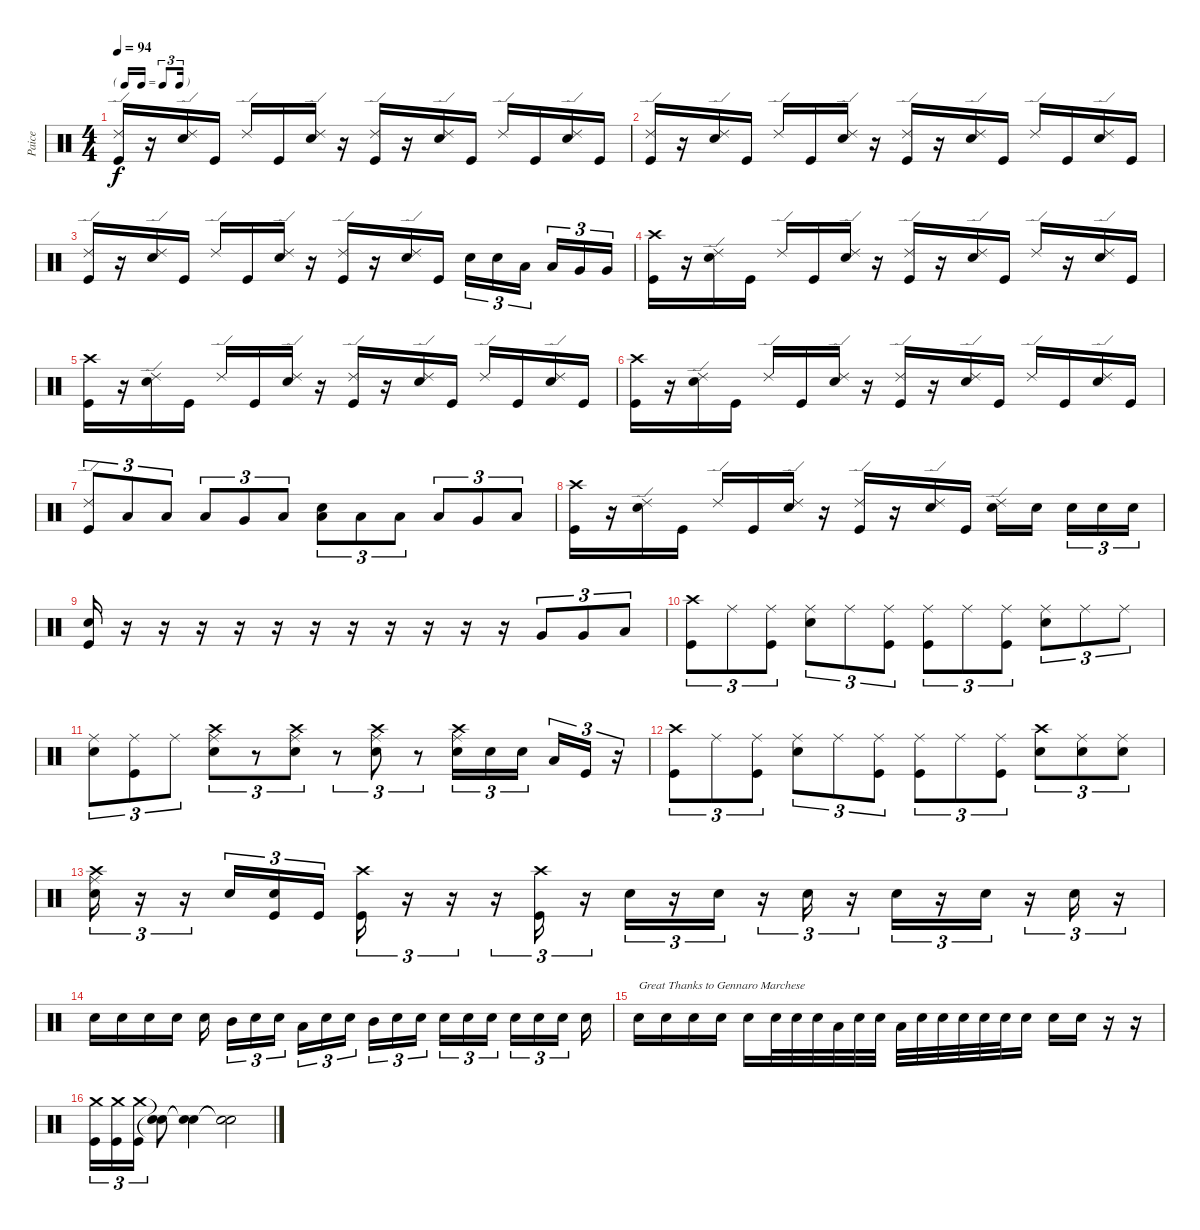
\track ("Paice" "Paice") {instrument percussion}
\staff {score}
\articulation defaults
\ts (4 4)
\tf triplet16th
\tempo 94
\clef neutral
\ks c
("Ride (edge) 2" "Kick (hit)").16{dy f} r.16 ("Ride (edge) 2" "Snare (hit) 2").16 "Kick (hit)".16 "Ride (edge) 2".16 "Kick (hit)".16 ("Ride (edge) 2" "Snare (hit) 2").16 r.16 ("Ride (edge) 2" "Kick (hit)").16 r.16 ("Ride (edge) 2" "Snare (hit) 2").16 "Kick (hit)".16 "Ride (edge) 2".16 "Kick (hit)".16 ("Ride (edge) 2" "Snare (hit) 2").16 "Kick (hit)".16 |
("Ride (edge) 2" "Kick (hit)").16 r.16 ("Ride (edge) 2" "Snare (hit) 2").16 "Kick (hit)".16 "Ride (edge) 2".16 "Kick (hit)".16 ("Ride (edge) 2" "Snare (hit) 2").16 r.16 ("Ride (edge) 2" "Kick (hit)").16 r.16 ("Ride (edge) 2" "Snare (hit) 2").16 "Kick (hit)".16 "Ride (edge) 2".16 "Kick (hit)".16 ("Ride (edge) 2" "Snare (hit) 2").16 "Kick (hit)".16 |
("Ride (edge) 2" "Kick (hit)").16 r.16 ("Ride (edge) 2" "Snare (hit) 2").16 "Kick (hit)".16 "Ride (edge) 2".16 "Kick (hit)".16 ("Ride (edge) 2" "Snare (hit) 2").16 r.16 ("Ride (edge) 2" "Kick (hit)").16 r.16 ("Ride (edge) 2" "Snare (hit) 2").16 "Kick (hit)".16 "Snare (hit) 2".16{tu (3 2)} "Snare (hit) 2".16{tu (3 2)} "Low Tom (hit)".16{tu (3 2) beam splitsecondary} "Low Tom (hit)".16{tu (3 2)} "Very Low Tom (hit)".16{tu (3 2)} "Very Low Tom (hit)".16{tu (3 2)} |
("Crash high (hit)" "Kick (hit)").16 r.16 ("Ride (edge) 2" "Snare (hit) 2").16 "Kick (hit)".16 "Ride (edge) 2".16 "Kick (hit)".16 ("Ride (edge) 2" "Snare (hit) 2").16 r.16 ("Ride (edge) 2" "Kick (hit)").16 r.16 ("Ride (edge) 2" "Snare (hit) 2").16 "Kick (hit)".16 "Ride (edge) 2".16 r.16 ("Ride (edge) 2" "Snare (hit) 2").16 "Kick (hit)".16 |
("Crash high (hit)" "Kick (hit)").16 r.16 ("Ride (edge) 2" "Snare (hit) 2").16 "Kick (hit)".16 "Ride (edge) 2".16 "Kick (hit)".16 ("Ride (edge) 2" "Snare (hit) 2").16 r.16 ("Ride (edge) 2" "Kick (hit)").16 r.16 ("Ride (edge) 2" "Snare (hit) 2").16 "Kick (hit)".16 "Ride (edge) 2".16 "Kick (hit)".16 ("Ride (edge) 2" "Snare (hit) 2").16 "Kick (hit)".16 |
("Crash high (hit)" "Kick (hit)").16 r.16 ("Ride (edge) 2" "Snare (hit) 2").16 "Kick (hit)".16 "Ride (edge) 2".16 "Kick (hit)".16 ("Ride (edge) 2" "Snare (hit) 2").16 r.16 ("Ride (edge) 2" "Kick (hit)").16 r.16 ("Ride (edge) 2" "Snare (hit) 2").16 "Kick (hit)".16 "Ride (edge) 2".16 "Kick (hit)".16 ("Ride (edge) 2" "Snare (hit) 2").16 "Kick (hit)".16 |
("Ride (edge) 2" "Kick (hit)").8{tu (3 2)} "Low Tom (hit)".8{tu (3 2)} "Low Tom (hit)".8{tu (3 2)} "Low Tom (hit)".8{tu (3 2)} "Very Low Tom (hit)".8{tu (3 2)} "Low Floor Tom (hit)".8{tu (3 2)} ("Low Tom (hit)" "Snare (hit) 2").8{tu (3 2)} "Low Tom (hit)".8{tu (3 2)} "Low Tom (hit)".8{tu (3 2)} "Low Tom (hit)".8{tu (3 2)} "Very Low Tom (hit)".8{tu (3 2)} "Low Floor Tom (hit)".8{tu (3 2)} |
("Crash high (hit)" "Kick (hit)").16 r.16 ("Ride (edge) 2" "Snare (hit) 2").16 "Kick (hit)".16 "Ride (edge) 2".16 "Kick (hit)".16 ("Ride (edge) 2" "Snare (hit) 2").16 r.16 ("Ride (edge) 2" "Kick (hit)").16 r.16 ("Ride (edge) 2" "Snare (hit) 2").16 "Kick (hit)".16 ("Ride (edge) 2" "Snare (hit) 2").16 "Snare (hit) 2".16{beam splitsecondary} "Snare (hit) 2".16{tu (3 2)} "Snare (hit) 2".16{tu (3 2)} "Snare (hit) 2".16{tu (3 2)} |
("Snare (hit) 2" "Kick (hit)").16 r.16 r.16 r.16 r.16 r.16 r.16 r.16 r.16 r.16 r.16 r.16 "Very Low Tom (hit)".8{tu (3 2)} "Very Low Tom (hit)".8{tu (3 2)} "Low Floor Tom (hit)".8{tu (3 2)} |
("Crash high (hit)" "Kick (hit)").8{tu (3 2)} "Ride (middle)".8{tu (3 2)} ("Ride (middle)" "Kick (hit)").8{tu (3 2)} ("Ride (middle)" "Snare (hit) 2").8{tu (3 2)} "Ride (middle)".8{tu (3 2)} ("Ride (middle)" "Kick (hit)").8{tu (3 2)} ("Ride (middle)" "Kick (hit)").8{tu (3 2)} "Ride (middle)".8{tu (3 2)} ("Ride (middle)" "Kick (hit)").8{tu (3 2)} ("Ride (middle)" "Snare (hit) 2").8{tu (3 2)} "Ride (middle)".8{tu (3 2)} "Ride (middle)".8{tu (3 2)} |
("Ride (middle)" "Snare (hit) 2").8{tu (3 2)} ("Ride (middle)" "Kick (hit)").8{tu (3 2)} "Ride (middle)".8{tu (3 2)} ("Crash high (hit)" "Ride (middle)" "Snare (hit) 2").8{tu (3 2)} r.8{tu (3 2)} ("Crash high (hit)" "Ride (middle)" "Snare (hit) 2").8{tu (3 2)} r.8{tu (3 2)} ("Crash high (hit)" "Ride (middle)" "Snare (hit) 2").8{tu (3 2)} r.8{tu (3 2)} ("Crash high (hit)" "Ride (middle)" "Snare (hit) 2").16{tu (3 2)} "Snare (hit) 2".16{tu (3 2)} "Snare (hit) 2".16{tu (3 2) beam splitsecondary} "Low Tom (hit)".16{tu (3 2)} "Kick (hit)".16{tu (3 2)} r.16{tu (3 2)} |
("Crash high (hit)" "Kick (hit)").8{tu (3 2)} "Ride (middle)".8{tu (3 2)} ("Ride (middle)" "Kick (hit)").8{tu (3 2)} ("Ride (middle)" "Snare (hit) 2").8{tu (3 2)} "Ride (middle)".8{tu (3 2)} ("Ride (middle)" "Kick (hit)").8{tu (3 2)} ("Ride (middle)" "Kick (hit)").8{tu (3 2)} "Ride (middle)".8{tu (3 2)} ("Ride (middle)" "Kick (hit)").8{tu (3 2)} ("Crash high (hit)" "Snare (hit) 2").8{tu (3 2)} ("Ride (middle)" "Snare (hit) 2").8{tu (3 2)} ("Ride (middle)" "Snare (hit) 2").8{tu (3 2)} |
("Crash high (hit)" "Ride (middle)" "Snare (hit) 2").16{tu (3 2)} r.16{tu (3 2)} r.16{tu (3 2)} "Snare (hit) 2".16{tu (3 2)} ("Snare (hit) 2" "Kick (hit)").16{tu (3 2)} "Kick (hit)".16{tu (3 2)} ("Crash high (hit)" "Kick (hit)").16{tu (3 2)} r.16{tu (3 2)} r.16{tu (3 2)} r.16{tu (3 2)} ("Crash high (hit)" "Kick (hit)").16{tu (3 2)} r.16{tu (3 2)} "Snare (hit) 2".16{tu (3 2)} r.16{tu (3 2)} "Snare (hit) 2".16{tu (3 2)} r.16{tu (3 2)} "Snare (hit) 2".16{tu (3 2)} r.16{tu (3 2)} "Snare (hit) 2".16{tu (3 2)} r.16{tu (3 2)} "Snare (hit) 2".16{tu (3 2)} r.16{tu (3 2)} "Snare (hit) 2".16{tu (3 2)} r.16{tu (3 2)} |
"Snare (hit) 2".16 "Snare (hit) 2".16 "Snare (hit) 2".16 "Snare (hit) 2".16 "Snare (hit) 2".16{beam splitsecondary} "Mid Tom (hit)".16{tu (3 2)} "Snare (hit) 2".16{tu (3 2)} "Snare (hit) 2".16{tu (3 2) beam splitsecondary} "Low Tom (hit)".16{tu (3 2)} "Snare (hit) 2".16{tu (3 2)} "Snare (hit) 2".16{tu (3 2) beam splitsecondary} "Mid Tom (hit)".16{tu (3 2)} "Snare (hit) 2".16{tu (3 2)} "Snare (hit) 2".16{tu (3 2) beam splitsecondary} "Snare (hit) 2".16{tu (3 2)} "Snare (hit) 2".16{tu (3 2)} "Snare (hit) 2".16{tu (3 2) beam splitsecondary} "Snare (hit) 2".16{tu (3 2)} "Snare (hit) 2".16{tu (3 2)} "Snare (hit) 2".16{tu (3 2) beam splitsecondary} "Snare (hit) 2".16 |
"Snare (hit) 2".16{txt "Great Thanks to Gennaro Marchese"} "Snare (hit) 2".16 "Snare (hit) 2".16 "Snare (hit) 2".16 "Snare (hit) 2".16 "Snare (hit) 2".32 "Snare (hit) 2".32 "Snare (hit) 2".32 "Low Tom (hit)".32 "Snare (hit) 2".32 "Snare (hit) 2".32 "Low Tom (hit)".32 "Snare (hit) 2".32 "Snare (hit) 2".32 "Snare (hit) 2".32 "Snare (hit) 2".32 "Snare (hit) 2".32 "Snare (hit) 2".16 "Snare (hit) 2".16 "Snare (hit) 2".16 r.16 r.16 |
("Crash medium (hit)" "Kick (hit)").16{tu (3 2)} ("Crash medium (hit)" "Kick (hit)").16{tu (3 2)} ("Crash medium (hit)" "Kick (hit)").16{tu (3 2)} ("Snare (hit)"{t} "Snare (hit)"{t}).8 ("Snare (hit)"{t} "Snare (hit)"{t}).4 ("Snare (hit)"{t} "Snare (hit)"{t}).2
